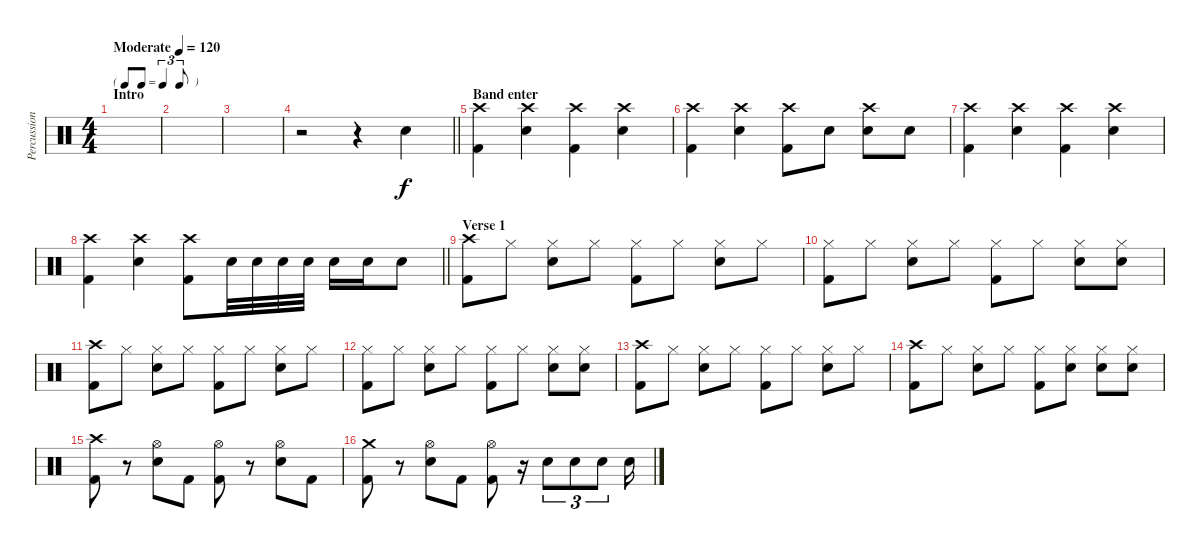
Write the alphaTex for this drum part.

\track ("Percussion" "Percussion") {instrument percussion}
\staff {score}
\articulation defaults
\ts (4 4)
\tf triplet8th
\section ("" "Intro")
\tempo (120 "Moderate")
\clef neutral
\ks c
|
|
|
\barLineRight lightlight
r.2 r.4 "Snare (hit) 2".4 |
\section ("" "Band enter")
("Crash high (hit)" "Kick (hit) 2").4 ("Crash high (hit)" "Snare (hit) 2").4 ("Crash high (hit)" "Kick (hit) 2").4 ("Crash high (hit)" "Snare (hit) 2").4 |
("Crash high (hit)" "Kick (hit) 2").4 ("Crash high (hit)" "Snare (hit) 2").4 ("Crash high (hit)" "Kick (hit) 2").8 "Snare (hit) 2".8 ("Crash high (hit)" "Snare (hit) 2").8 "Snare (hit) 2".8 |
("Crash high (hit)" "Kick (hit) 2").4 ("Crash high (hit)" "Snare (hit) 2").4 ("Crash high (hit)" "Kick (hit) 2").4 ("Crash high (hit)" "Snare (hit) 2").4 |
\barLineRight lightlight
("Crash high (hit)" "Kick (hit) 2").4 ("Crash high (hit)" "Snare (hit) 2").4 ("Crash high (hit)" "Kick (hit) 2").8 "Snare (hit) 2".32 "Snare (hit) 2".32 "Snare (hit) 2".32 "Snare (hit) 2".32 "Snare (hit) 2".16 "Snare (hit) 2".16 "Snare (hit) 2".8 |
\section ("" "Verse 1")
("Crash high (hit)" "Kick (hit) 2").8 "Hi-Hat (closed)".8 ("Hi-Hat (closed)" "Snare (hit) 2").8 "Hi-Hat (closed)".8 ("Hi-Hat (closed)" "Kick (hit) 2").8 "Hi-Hat (closed)".8 ("Hi-Hat (closed)" "Snare (hit) 2").8 "Hi-Hat (closed)".8 |
("Hi-Hat (closed)" "Kick (hit) 2").8 "Hi-Hat (closed)".8 ("Hi-Hat (closed)" "Snare (hit) 2").8 "Hi-Hat (closed)".8 ("Hi-Hat (closed)" "Kick (hit) 2").8 "Hi-Hat (closed)".8 ("Hi-Hat (closed)" "Snare (hit) 2").8 ("Hi-Hat (closed)" "Snare (hit) 2").8 |
("Crash high (hit)" "Kick (hit) 2").8 "Hi-Hat (closed)".8 ("Hi-Hat (closed)" "Snare (hit) 2").8 "Hi-Hat (closed)".8 ("Hi-Hat (closed)" "Kick (hit) 2").8 "Hi-Hat (closed)".8 ("Hi-Hat (closed)" "Snare (hit) 2").8 "Hi-Hat (closed)".8 |
("Hi-Hat (closed)" "Kick (hit) 2").8 "Hi-Hat (closed)".8 ("Hi-Hat (closed)" "Snare (hit) 2").8 "Hi-Hat (closed)".8 ("Hi-Hat (closed)" "Kick (hit) 2").8 "Hi-Hat (closed)".8 ("Hi-Hat (closed)" "Snare (hit) 2").8 ("Hi-Hat (closed)" "Snare (hit) 2").8 |
("Crash high (hit)" "Kick (hit) 2").8 "Hi-Hat (closed)".8 ("Hi-Hat (closed)" "Snare (hit) 2").8 "Hi-Hat (closed)".8 ("Hi-Hat (closed)" "Kick (hit) 2").8 "Hi-Hat (closed)".8 ("Hi-Hat (closed)" "Snare (hit) 2").8 "Hi-Hat (closed)".8 |
("Crash high (hit)" "Kick (hit) 2").8 "Hi-Hat (closed)".8 ("Hi-Hat (closed)" "Snare (hit) 2").8 "Hi-Hat (closed)".8 ("Hi-Hat (closed)" "Kick (hit) 2").8 ("Hi-Hat (closed)" "Snare (hit) 2").8 ("Hi-Hat (closed)" "Snare (hit) 2").8 ("Hi-Hat (closed)" "Snare (hit) 2").8 |
("Crash high (hit)" "Kick (hit) 2").8 r.8 ("Hi-Hat (open)" "Snare (hit) 2").8 "Kick (hit) 2".8 ("Hi-Hat (open)" "Kick (hit) 2").8 r.8 ("Hi-Hat (open)" "Snare (hit) 2").8 "Kick (hit) 2".8 |
("Crash medium (hit)" "Kick (hit) 2").8 r.8 ("Hi-Hat (open)" "Snare (hit) 2").8 "Kick (hit) 2".8 ("Hi-Hat (open)" "Kick (hit) 2").8 r.16 "Snare (hit) 2".8{tu (3 2)} "Snare (hit) 2".8{tu (3 2)} "Snare (hit) 2".8{tu (3 2)} "Snare (hit) 2".16
